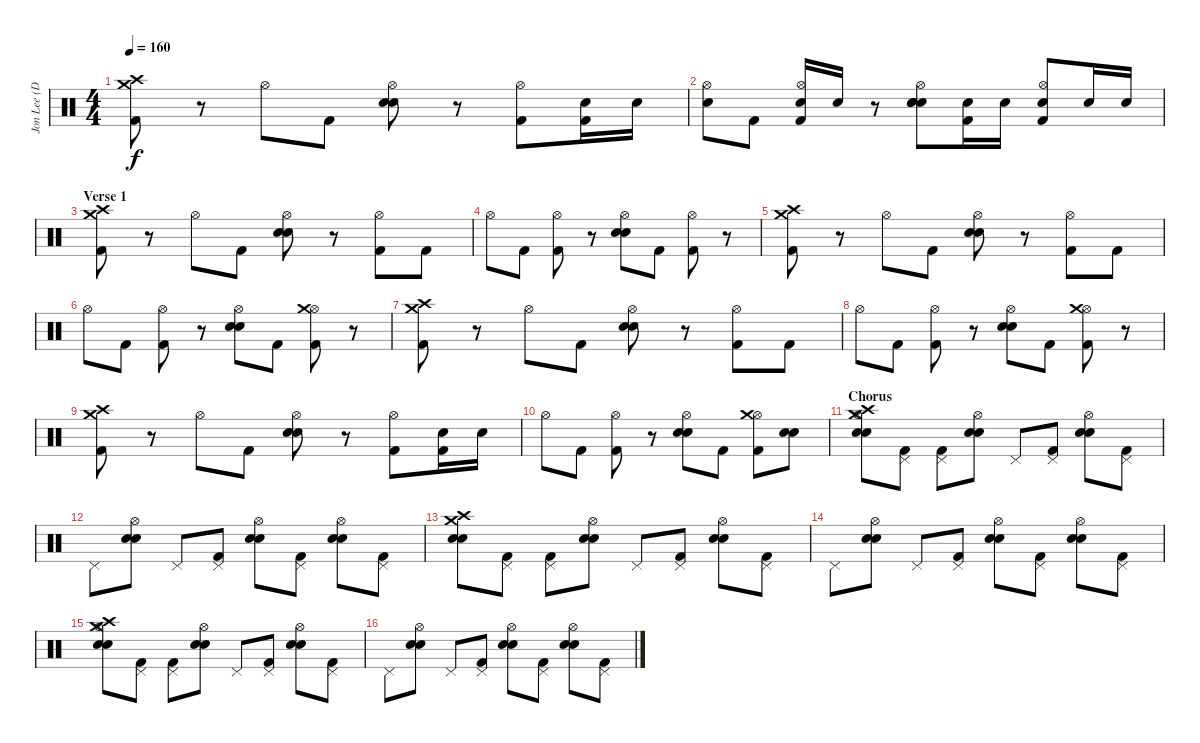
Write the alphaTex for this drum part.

\track ("Jon Lee (Drums)" "Jon Lee (D") {instrument percussion}
\staff {score}
\articulation defaults
\ts (4 4)
\tempo 160
\clef neutral
\ks c
("Crash high (hit)" "Crash medium (hit)" "Kick (hit) 2").8{dy f} r.8 "Hi-Hat (open)".8 "Kick (hit) 2".8 ("Hi-Hat (open)" "Electric Snare (hit)" "Snare (hit) 2").8 r.8 ("Hi-Hat (open)" "Kick (hit) 2").8 ("Electric Snare (hit)" "Kick (hit) 2").16 "Electric Snare (hit)".16 |
("Hi-Hat (open)" "Electric Snare (hit)").8 "Kick (hit) 2".8 ("Hi-Hat (open)" "Electric Snare (hit)" "Kick (hit) 2").16 "Electric Snare (hit)".16 r.8 ("Hi-Hat (open)" "Electric Snare (hit)" "Electric Snare (hit)" "Snare (hit) 2").8 ("Electric Snare (hit)" "Kick (hit) 2").16 "Electric Snare (hit)".16 ("Hi-Hat (open)" "Electric Snare (hit)" "Kick (hit) 2").8 "Electric Snare (hit)".16 "Electric Snare (hit)".16 |
\section ("" "Verse 1")
("Crash high (hit)" "Crash medium (hit)" "Kick (hit) 2").8 r.8 "Hi-Hat (open)".8 "Kick (hit) 2".8 ("Hi-Hat (open)" "Electric Snare (hit)" "Snare (hit) 2").8 r.8 ("Hi-Hat (open)" "Kick (hit) 2").8 "Kick (hit) 2".8 |
"Hi-Hat (open)".8 "Kick (hit) 2".8 ("Hi-Hat (open)" "Kick (hit) 2").8 r.8 ("Hi-Hat (open)" "Electric Snare (hit)" "Snare (hit) 2").8 "Kick (hit) 2".8 ("Hi-Hat (open)" "Kick (hit) 2").8 r.8 |
("Crash high (hit)" "Crash medium (hit)" "Kick (hit) 2").8 r.8 "Hi-Hat (open)".8 "Kick (hit) 2".8 ("Hi-Hat (open)" "Electric Snare (hit)" "Snare (hit) 2").8 r.8 ("Hi-Hat (open)" "Kick (hit) 2").8 "Kick (hit) 2".8 |
"Hi-Hat (open)".8 "Kick (hit) 2".8 ("Hi-Hat (open)" "Kick (hit) 2").8 r.8 ("Hi-Hat (open)" "Electric Snare (hit)" "Snare (hit) 2").8 "Kick (hit) 2".8 ("Hi-Hat (open)" "Crash medium (hit)" "Kick (hit) 2").8 r.8 |
("Crash high (hit)" "Crash medium (hit)" "Kick (hit) 2").8 r.8 "Hi-Hat (open)".8 "Kick (hit) 2".8 ("Hi-Hat (open)" "Electric Snare (hit)" "Snare (hit) 2").8 r.8 ("Hi-Hat (open)" "Kick (hit) 2").8 "Kick (hit) 2".8 |
"Hi-Hat (open)".8 "Kick (hit) 2".8 ("Hi-Hat (open)" "Kick (hit) 2").8 r.8 ("Hi-Hat (open)" "Electric Snare (hit)" "Snare (hit) 2").8 "Kick (hit) 2".8 ("Hi-Hat (open)" "Crash medium (hit)" "Kick (hit) 2").8 r.8 |
("Crash high (hit)" "Crash medium (hit)" "Kick (hit) 2").8 r.8 "Hi-Hat (open)".8 "Kick (hit) 2".8 ("Hi-Hat (open)" "Electric Snare (hit)" "Snare (hit) 2").8 r.8 ("Hi-Hat (open)" "Kick (hit) 2").8 ("Electric Snare (hit)" "Kick (hit) 2").16 "Electric Snare (hit)".16 |
"Hi-Hat (open)".8 "Kick (hit) 2".8 ("Hi-Hat (open)" "Kick (hit) 2").8 r.8 ("Hi-Hat (open)" "Electric Snare (hit)" "Snare (hit) 2").8 "Kick (hit) 2".8 ("Hi-Hat (open)" "Crash medium (hit)" "Kick (hit) 2").8 ("Electric Snare (hit)" "Snare (hit) 2").8 |
\section ("" "Chorus")
("Snare (hit) 2" "Electric Snare (hit)" "Crash medium (hit)" "Hi-Hat (open)" "Crash high (hit)").8 ("Kick (hit) 2" "Pedal Hi-Hat (hit)").8 ("Kick (hit) 2" "Pedal Hi-Hat (hit)").8 ("Snare (hit) 2" "Electric Snare (hit)" "Hi-Hat (open)").8 "Pedal Hi-Hat (hit)".8 ("Kick (hit) 2" "Pedal Hi-Hat (hit)").8 ("Snare (hit) 2" "Electric Snare (hit)" "Hi-Hat (open)").8 ("Kick (hit) 2" "Pedal Hi-Hat (hit)").8 |
"Pedal Hi-Hat (hit)".8 ("Snare (hit) 2" "Electric Snare (hit)" "Hi-Hat (open)").8 "Pedal Hi-Hat (hit)".8 ("Kick (hit) 2" "Pedal Hi-Hat (hit)").8 ("Snare (hit) 2" "Electric Snare (hit)" "Hi-Hat (open)").8 ("Kick (hit) 2" "Pedal Hi-Hat (hit)").8 ("Snare (hit) 2" "Electric Snare (hit)" "Hi-Hat (open)").8 ("Kick (hit) 2" "Pedal Hi-Hat (hit)").8 |
("Snare (hit) 2" "Electric Snare (hit)" "Crash medium (hit)" "Crash high (hit)").8 ("Kick (hit) 2" "Pedal Hi-Hat (hit)").8 ("Kick (hit) 2" "Pedal Hi-Hat (hit)").8 ("Snare (hit) 2" "Electric Snare (hit)" "Hi-Hat (open)").8 "Pedal Hi-Hat (hit)".8 ("Kick (hit) 2" "Pedal Hi-Hat (hit)").8 ("Snare (hit) 2" "Electric Snare (hit)" "Hi-Hat (open)").8 ("Kick (hit) 2" "Pedal Hi-Hat (hit)").8 |
"Pedal Hi-Hat (hit)".8 ("Snare (hit) 2" "Electric Snare (hit)" "Hi-Hat (open)").8 "Pedal Hi-Hat (hit)".8 ("Kick (hit) 2" "Pedal Hi-Hat (hit)").8 ("Snare (hit) 2" "Electric Snare (hit)" "Hi-Hat (open)").8 ("Kick (hit) 2" "Pedal Hi-Hat (hit)").8 ("Snare (hit) 2" "Electric Snare (hit)" "Hi-Hat (open)").8 ("Kick (hit) 2" "Pedal Hi-Hat (hit)").8 |
("Snare (hit) 2" "Electric Snare (hit)" "Crash medium (hit)" "Hi-Hat (open)" "Crash high (hit)").8 ("Kick (hit) 2" "Pedal Hi-Hat (hit)").8 ("Kick (hit) 2" "Pedal Hi-Hat (hit)").8 ("Snare (hit) 2" "Electric Snare (hit)" "Hi-Hat (open)").8 "Pedal Hi-Hat (hit)".8 ("Kick (hit) 2" "Pedal Hi-Hat (hit)").8 ("Snare (hit) 2" "Electric Snare (hit)" "Hi-Hat (open)").8 ("Kick (hit) 2" "Pedal Hi-Hat (hit)").8 |
"Pedal Hi-Hat (hit)".8 ("Snare (hit) 2" "Electric Snare (hit)" "Hi-Hat (open)").8 "Pedal Hi-Hat (hit)".8 ("Kick (hit) 2" "Pedal Hi-Hat (hit)").8 ("Snare (hit) 2" "Electric Snare (hit)" "Hi-Hat (open)").8 ("Kick (hit) 2" "Pedal Hi-Hat (hit)").8 ("Snare (hit) 2" "Electric Snare (hit)" "Hi-Hat (open)").8 ("Kick (hit) 2" "Pedal Hi-Hat (hit)").8
